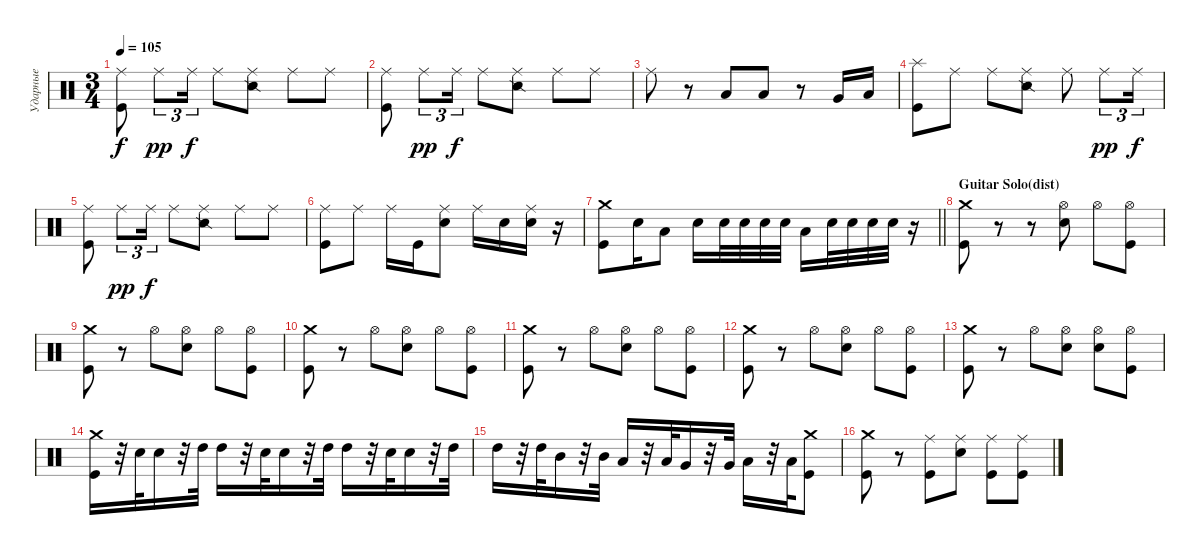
\track ("Ударные" "Ударные") {instrument percussion}
\staff {score}
\articulation defaults
\ts (3 4)
\tempo 105
\clef neutral
\ks c
("Ride (middle)" "Kick (hit)").8{dy f} "Ride (middle)".8{tu (3 2) dy pp} "Ride (middle)".16{tu (3 2) dy f} "Ride (middle)".8 ("Ride (middle)" "Snare (side stick) 2").8 "Ride (middle)".8 "Ride (middle)".8 |
("Ride (middle)" "Kick (hit)").8 "Ride (middle)".8{tu (3 2) dy pp} "Ride (middle)".16{tu (3 2) dy f} "Ride (middle)".8 ("Ride (middle)" "Snare (side stick) 2").8 "Ride (middle)".8 "Ride (middle)".8 |
"Ride (middle)".8 r.8 "Low Tom (hit)".8 "Low Tom (hit)".8 r.8 "Very Low Tom (hit)".16 "Low Floor Tom (hit)".16 |
("Splash (hit)" "Kick (hit)").8 "Ride (middle)".8 "Ride (middle)".8 ("Ride (middle)" "Snare (side stick) 2").8 "Ride (middle)".8 "Ride (middle)".8{tu (3 2) dy pp} "Ride (middle)".16{tu (3 2) dy f} |
("Ride (middle)" "Kick (hit)").8 "Ride (middle)".8{tu (3 2) dy pp} "Ride (middle)".16{tu (3 2) dy f} "Ride (middle)".8 ("Ride (middle)" "Snare (side stick) 2").8 "Ride (middle)".8 "Ride (middle)".8 |
("Ride (middle)" "Kick (hit)").8 "Ride (middle)".8 "Ride (middle)".16 "Kick (hit)".16 ("Ride (middle)" "Electric Snare (hit)").8 "Ride (middle)".16 "Electric Snare (hit)".16 ("Ride (middle)" "Electric Snare (hit)").16 r.16 |
\barLineRight lightlight
("Crash medium (hit)" "Kick (hit)").8 "Electric Snare (hit)".16 "Low Tom (hit)".8 "Electric Snare (hit)".16 "Electric Snare (hit)".32 "Electric Snare (hit)".32 "Electric Snare (hit)".32 "Electric Snare (hit)".32 "Low Tom (hit)".16 "Electric Snare (hit)".32 "Electric Snare (hit)".32 "Electric Snare (hit)".32 "Electric Snare (hit)".32 r.16 |
\section ("" "Guitar Solo(dist)")
("Crash medium (hit)" "Kick (hit)").8 r.8 r.8 ("Hi-Hat (open)" "Electric Snare (hit)").8 "Hi-Hat (open)".8 ("Hi-Hat (open)" "Kick (hit)").8 |
("Crash medium (hit)" "Kick (hit)").8 r.8 "Hi-Hat (open)".8 ("Hi-Hat (open)" "Electric Snare (hit)").8 "Hi-Hat (open)".8 ("Hi-Hat (open)" "Kick (hit)").8 |
("Crash medium (hit)" "Kick (hit)").8 r.8 "Hi-Hat (open)".8 ("Hi-Hat (open)" "Electric Snare (hit)").8 "Hi-Hat (open)".8 ("Hi-Hat (open)" "Kick (hit)").8 |
("Crash medium (hit)" "Kick (hit)").8 r.8 "Hi-Hat (open)".8 ("Hi-Hat (open)" "Electric Snare (hit)").8 "Hi-Hat (open)".8 ("Hi-Hat (open)" "Kick (hit)").8 |
("Crash medium (hit)" "Kick (hit)").8 r.8 "Hi-Hat (open)".8 ("Hi-Hat (open)" "Electric Snare (hit)").8 "Hi-Hat (open)".8 ("Hi-Hat (open)" "Kick (hit)").8 |
("Crash medium (hit)" "Kick (hit)").8 r.8 "Hi-Hat (open)".8 ("Hi-Hat (open)" "Electric Snare (hit)").8 ("Hi-Hat (open)" "Electric Snare (hit)").8 ("Hi-Hat (open)" "Kick (hit)").8 |
("Crash medium (hit)" "Kick (hit)").16 r.32 "Electric Snare (hit)".32 "Electric Snare (hit)".16 r.32 "High Tom (hit)".32 "High Tom (hit)".16 r.32 "Electric Snare (hit)".32 "Electric Snare (hit)".16 r.32 "High Tom (hit)".32 "High Tom (hit)".16 r.32 "Electric Snare (hit)".32 "Electric Snare (hit)".16 r.32 "High Tom (hit)".32 |
"High Tom (hit)".16 r.32 "High Tom (hit)".32 "Mid Tom (hit)".16 r.32 "Mid Tom (hit)".32 "Low Tom (hit)".16 r.32 "Low Tom (hit)".32 "Very Low Tom (hit)".16 r.32 "Very Low Tom (hit)".32 "Low Floor Tom (hit)".16 r.32 "Low Floor Tom (hit)".32 ("Crash medium (hit)" "Kick (hit)").8 |
("Crash medium (hit)" "Kick (hit)").8 r.8 ("Ride (middle)" "Kick (hit)").8 ("Ride (middle)" "Electric Snare (hit)").8 ("Ride (middle)" "Kick (hit)").8 ("Ride (middle)" "Kick (hit)").8
